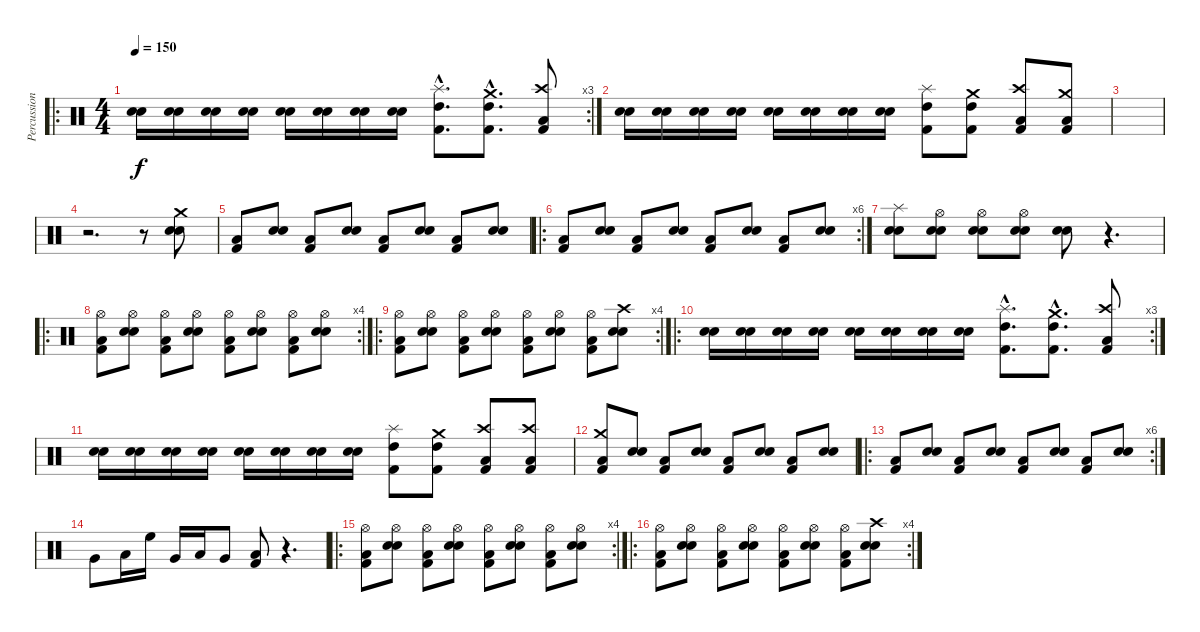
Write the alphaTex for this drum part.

\track ("Percussions" "Percussion") {instrument percussion}
\staff {score}
\articulation defaults
\ro
\rc 3
\ts (4 4)
\tempo 150
\clef neutral
\ks c
("Snare (hit) 2" "Electric Snare (hit)").16{dy f} ("Snare (hit) 2" "Electric Snare (hit)").16 ("Snare (hit) 2" "Electric Snare (hit)").16 ("Snare (hit) 2" "Electric Snare (hit)").16 ("Snare (hit) 2" "Electric Snare (hit)").16 ("Snare (hit) 2" "Electric Snare (hit)").16 ("Snare (hit) 2" "Electric Snare (hit)").16 ("Snare (hit) 2" "Electric Snare (hit)").16 ("Splash (hit)"{hac} "Kick (hit) 2"{hac} "High Tom (hit)"{hac}).8{d} ("Crash medium (hit)"{hac} "Kick (hit) 2"{hac} "High Tom (hit)"{hac}).8{d} ("Crash high (hit)" "Kick (hit) 2" "Low Floor Tom (hit)").8 |
("Snare (hit) 2" "Electric Snare (hit)").16 ("Snare (hit) 2" "Electric Snare (hit)").16 ("Snare (hit) 2" "Electric Snare (hit)").16 ("Snare (hit) 2" "Electric Snare (hit)").16 ("Snare (hit) 2" "Electric Snare (hit)").16 ("Snare (hit) 2" "Electric Snare (hit)").16 ("Snare (hit) 2" "Electric Snare (hit)").16 ("Snare (hit) 2" "Electric Snare (hit)").16 ("Splash (hit)" "Kick (hit) 2" "High Tom (hit)").8 ("Crash medium (hit)" "Kick (hit) 2" "High Tom (hit)").8 ("Crash high (hit)" "Kick (hit) 2" "Low Floor Tom (hit)").8 ("Crash medium (hit)" "Kick (hit) 2" "Low Floor Tom (hit)").8 |
|
r.2{d} r.8 ("Crash medium (hit)" "Snare (hit) 2" "Electric Snare (hit)").8 |
("Kick (hit) 2" "Low Floor Tom (hit)").8 ("Snare (hit) 2" "Electric Snare (hit)").8 ("Kick (hit) 2" "Low Floor Tom (hit)").8 ("Snare (hit) 2" "Electric Snare (hit)").8 ("Kick (hit) 2" "Low Floor Tom (hit)").8 ("Snare (hit) 2" "Electric Snare (hit)").8 ("Kick (hit) 2" "Low Floor Tom (hit)").8 ("Snare (hit) 2" "Electric Snare (hit)").8 |
\ro
\rc 6
("Kick (hit) 2" "Low Floor Tom (hit)").8 ("Snare (hit) 2" "Electric Snare (hit)").8 ("Kick (hit) 2" "Low Floor Tom (hit)").8 ("Snare (hit) 2" "Electric Snare (hit)").8 ("Kick (hit) 2" "Low Floor Tom (hit)").8 ("Snare (hit) 2" "Electric Snare (hit)").8 ("Kick (hit) 2" "Low Floor Tom (hit)").8 ("Snare (hit) 2" "Electric Snare (hit)").8 |
("Splash (hit)" "Snare (hit) 2" "Electric Snare (hit)").8 ("Hi-Hat (open)" "Snare (hit) 2" "Electric Snare (hit)").8 ("Hi-Hat (open)" "Snare (hit) 2" "Electric Snare (hit)").8 ("Hi-Hat (open)" "Snare (hit) 2" "Electric Snare (hit)").8 ("Snare (hit) 2" "Electric Snare (hit)").8 r.4{d} |
\ro
\rc 4
("Hi-Hat (open)" "Kick (hit) 2" "Low Floor Tom (hit)").8 ("Hi-Hat (open)" "Snare (hit) 2" "Electric Snare (hit)").8 ("Hi-Hat (open)" "Kick (hit) 2" "Low Floor Tom (hit)").8 ("Hi-Hat (open)" "Snare (hit) 2" "Electric Snare (hit)").8 ("Hi-Hat (open)" "Kick (hit) 2" "Low Floor Tom (hit)").8 ("Hi-Hat (open)" "Snare (hit) 2" "Electric Snare (hit)").8 ("Hi-Hat (open)" "Kick (hit) 2" "Low Floor Tom (hit)").8 ("Hi-Hat (open)" "Snare (hit) 2" "Electric Snare (hit)").8 |
\ro
\rc 4
("Hi-Hat (open)" "Kick (hit) 2" "Low Floor Tom (hit)").8 ("Hi-Hat (open)" "Snare (hit) 2" "Electric Snare (hit)").8 ("Hi-Hat (open)" "Kick (hit) 2" "Low Floor Tom (hit)").8 ("Hi-Hat (open)" "Snare (hit) 2" "Electric Snare (hit)").8 ("Hi-Hat (open)" "Kick (hit) 2" "Low Floor Tom (hit)").8 ("Hi-Hat (open)" "Snare (hit) 2" "Electric Snare (hit)").8 ("Hi-Hat (open)" "Kick (hit) 2" "Low Floor Tom (hit)").8 ("Crash high (hit)" "Snare (hit) 2" "Electric Snare (hit)").8 |
\ro
\rc 3
("Snare (hit) 2" "Electric Snare (hit)").16 ("Snare (hit) 2" "Electric Snare (hit)").16 ("Snare (hit) 2" "Electric Snare (hit)").16 ("Snare (hit) 2" "Electric Snare (hit)").16 ("Snare (hit) 2" "Electric Snare (hit)").16 ("Snare (hit) 2" "Electric Snare (hit)").16 ("Snare (hit) 2" "Electric Snare (hit)").16 ("Snare (hit) 2" "Electric Snare (hit)").16 ("Splash (hit)"{hac} "Kick (hit) 2"{hac} "High Tom (hit)"{hac}).8{d} ("Crash medium (hit)"{hac} "Kick (hit) 2"{hac} "High Tom (hit)"{hac}).8{d} ("Crash high (hit)" "Kick (hit) 2" "Low Floor Tom (hit)").8 |
("Snare (hit) 2" "Electric Snare (hit)").16 ("Snare (hit) 2" "Electric Snare (hit)").16 ("Snare (hit) 2" "Electric Snare (hit)").16 ("Snare (hit) 2" "Electric Snare (hit)").16 ("Snare (hit) 2" "Electric Snare (hit)").16 ("Snare (hit) 2" "Electric Snare (hit)").16 ("Snare (hit) 2" "Electric Snare (hit)").16 ("Snare (hit) 2" "Electric Snare (hit)").16 ("Splash (hit)" "Kick (hit) 2" "High Tom (hit)").8 ("Crash medium (hit)" "Kick (hit) 2" "High Tom (hit)").8 ("Crash high (hit)" "Kick (hit) 2" "Low Floor Tom (hit)").8 ("Crash high (hit)" "Kick (hit) 2" "Low Floor Tom (hit)").8 |
("Crash medium (hit)" "Kick (hit) 2" "Low Floor Tom (hit)").8 ("Snare (hit) 2" "Electric Snare (hit)").8 ("Kick (hit) 2" "Low Floor Tom (hit)").8 ("Snare (hit) 2" "Electric Snare (hit)").8 ("Kick (hit) 2" "Low Floor Tom (hit)").8 ("Snare (hit) 2" "Electric Snare (hit)").8 ("Kick (hit) 2" "Low Floor Tom (hit)").8 ("Snare (hit) 2" "Electric Snare (hit)").8 |
\ro
\rc 6
("Kick (hit) 2" "Low Floor Tom (hit)").8 ("Snare (hit) 2" "Electric Snare (hit)").8 ("Kick (hit) 2" "Low Floor Tom (hit)").8 ("Snare (hit) 2" "Electric Snare (hit)").8 ("Kick (hit) 2" "Low Floor Tom (hit)").8 ("Snare (hit) 2" "Electric Snare (hit)").8 ("Kick (hit) 2" "Low Floor Tom (hit)").8 ("Snare (hit) 2" "Electric Snare (hit)").8 |
"Very Low Tom (hit)".8 "Low Floor Tom (hit)".16 "High Floor Tom (hit)".16 "Very Low Tom (hit)".16 "Low Floor Tom (hit)".16 "Very Low Tom (hit)".8 ("Kick (hit) 2" "Low Floor Tom (hit)").8 r.4{d} |
\ro
\rc 4
("Hi-Hat (open)" "Kick (hit) 2" "Low Floor Tom (hit)").8 ("Hi-Hat (open)" "Snare (hit) 2" "Electric Snare (hit)").8 ("Hi-Hat (open)" "Kick (hit) 2" "Low Floor Tom (hit)").8 ("Hi-Hat (open)" "Snare (hit) 2" "Electric Snare (hit)").8 ("Hi-Hat (open)" "Kick (hit) 2" "Low Floor Tom (hit)").8 ("Hi-Hat (open)" "Snare (hit) 2" "Electric Snare (hit)").8 ("Hi-Hat (open)" "Kick (hit) 2" "Low Floor Tom (hit)").8 ("Hi-Hat (open)" "Snare (hit) 2" "Electric Snare (hit)").8 |
\ro
\rc 4
("Hi-Hat (open)" "Kick (hit) 2" "Low Floor Tom (hit)").8 ("Hi-Hat (open)" "Snare (hit) 2" "Electric Snare (hit)").8 ("Hi-Hat (open)" "Kick (hit) 2" "Low Floor Tom (hit)").8 ("Hi-Hat (open)" "Snare (hit) 2" "Electric Snare (hit)").8 ("Hi-Hat (open)" "Kick (hit) 2" "Low Floor Tom (hit)").8 ("Hi-Hat (open)" "Snare (hit) 2" "Electric Snare (hit)").8 ("Hi-Hat (open)" "Kick (hit) 2" "Low Floor Tom (hit)").8 ("Crash high (hit)" "Snare (hit) 2" "Electric Snare (hit)").8
